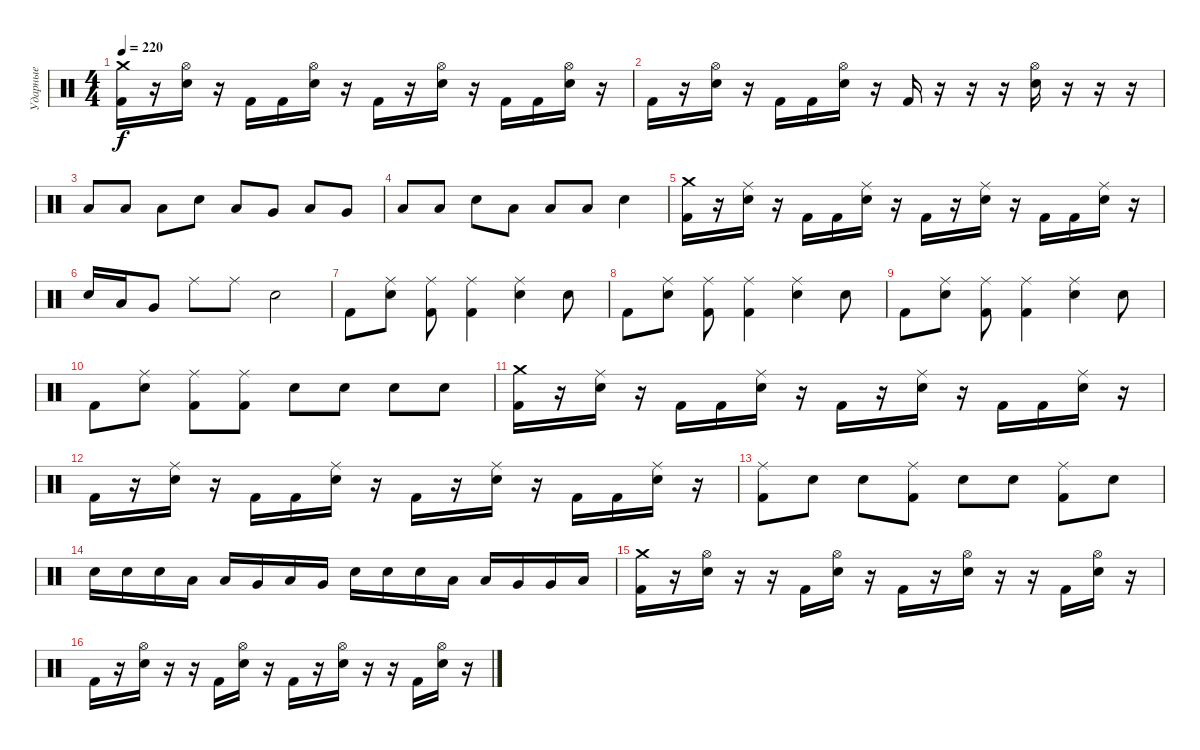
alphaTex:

\track ("Ударные" "Ударные") {instrument percussion}
\staff {score}
\articulation defaults
\ts (4 4)
\tempo 220
\clef neutral
\ks c
("Crash medium (hit)" "Kick (hit) 2").16{dy f} r.16 ("Hi-Hat (open)" "Snare (hit) 2").16 r.16 "Kick (hit) 2".16 "Kick (hit) 2".16 ("Hi-Hat (open)" "Snare (hit) 2").16 r.16 "Kick (hit) 2".16 r.16 ("Hi-Hat (open)" "Snare (hit) 2").16 r.16 "Kick (hit) 2".16 "Kick (hit) 2".16 ("Hi-Hat (open)" "Snare (hit) 2").16 r.16 |
"Kick (hit) 2".16 r.16 ("Hi-Hat (open)" "Snare (hit) 2").16 r.16 "Kick (hit) 2".16 "Kick (hit) 2".16 ("Hi-Hat (open)" "Snare (hit) 2").16 r.16 "Kick (hit) 2".16 r.16 r.16 r.16 ("Hi-Hat (open)" "Snare (hit) 2").16 r.16 r.16 r.16 |
"Low Floor Tom (hit)".8 "Low Floor Tom (hit)".8 "Low Floor Tom (hit)".8 "Snare (hit) 2".8 "Low Floor Tom (hit)".8 "Very Low Tom (hit)".8 "Low Floor Tom (hit)".8 "Very Low Tom (hit)".8 |
"Low Floor Tom (hit)".8 "Low Floor Tom (hit)".8 "Snare (hit) 2".8 "Low Floor Tom (hit)".8 "Low Floor Tom (hit)".8 "Low Floor Tom (hit)".8 "Snare (hit) 2".4 |
("Crash medium (hit)" "Kick (hit) 2").16 r.16 ("Ride (middle)" "Snare (hit) 2").16 r.16 "Kick (hit) 2".16 "Kick (hit) 2".16 ("Ride (middle)" "Snare (hit) 2").16 r.16 "Kick (hit) 2".16 r.16 ("Ride (middle)" "Snare (hit) 2").16 r.16 "Kick (hit) 2".16 "Kick (hit) 2".16 ("Ride (middle)" "Snare (hit) 2").16 r.16 |
"Snare (hit) 2".16 "Low Tom (hit)".16 "Very Low Tom (hit)".8 "Ride (middle)".8 "Ride (middle)".8 "Snare (hit) 2".2 |
"Kick (hit) 2".8 ("Ride (middle)" "Snare (hit) 2").8 ("Ride (middle)" "Kick (hit) 2").8 ("Ride (middle)" "Kick (hit) 2").4 ("Ride (middle)" "Snare (hit) 2").4 "Snare (hit) 2".8 |
"Kick (hit) 2".8 ("Ride (middle)" "Snare (hit) 2").8 ("Ride (middle)" "Kick (hit) 2").8 ("Ride (middle)" "Kick (hit) 2").4 ("Ride (middle)" "Snare (hit) 2").4 "Snare (hit) 2".8 |
"Kick (hit) 2".8 ("Ride (middle)" "Snare (hit) 2").8 ("Ride (middle)" "Kick (hit) 2").8 ("Ride (middle)" "Kick (hit) 2").4 ("Ride (middle)" "Snare (hit) 2").4 "Snare (hit) 2".8 |
"Kick (hit) 2".8 ("Ride (middle)" "Snare (hit) 2").8 ("Ride (middle)" "Kick (hit) 2").8 ("Ride (middle)" "Kick (hit) 2").8 "Snare (hit) 2".8 "Snare (hit) 2".8 "Snare (hit) 2".8 "Snare (hit) 2".8 |
("Crash medium (hit)" "Kick (hit) 2").16 r.16 ("Ride (middle)" "Snare (hit) 2").16 r.16 "Kick (hit) 2".16 "Kick (hit) 2".16 ("Ride (middle)" "Snare (hit) 2").16 r.16 "Kick (hit) 2".16 r.16 ("Ride (middle)" "Snare (hit) 2").16 r.16 "Kick (hit) 2".16 "Kick (hit) 2".16 ("Ride (middle)" "Snare (hit) 2").16 r.16 |
"Kick (hit) 2".16 r.16 ("Ride (middle)" "Snare (hit) 2").16 r.16 "Kick (hit) 2".16 "Kick (hit) 2".16 ("Ride (middle)" "Snare (hit) 2").16 r.16 "Kick (hit) 2".16 r.16 ("Ride (middle)" "Snare (hit) 2").16 r.16 "Kick (hit) 2".16 "Kick (hit) 2".16 ("Ride (middle)" "Snare (hit) 2").16 r.16 |
("Ride (middle)" "Kick (hit) 2").8 "Snare (hit) 2".8 "Snare (hit) 2".8 ("Ride (middle)" "Kick (hit) 2").8 "Snare (hit) 2".8 "Snare (hit) 2".8 ("Ride (middle)" "Kick (hit) 2").8 "Snare (hit) 2".8 |
"Snare (hit) 2".16 "Snare (hit) 2".16 "Snare (hit) 2".16 "Low Tom (hit)".16 "Low Tom (hit)".16 "Very Low Tom (hit)".16 "Low Floor Tom (hit)".16 "Very Low Tom (hit)".16 "Snare (hit) 2".16 "Snare (hit) 2".16 "Snare (hit) 2".16 "Low Tom (hit)".16 "Low Tom (hit)".16 "Very Low Tom (hit)".16 "Very Low Tom (hit)".16 "Low Floor Tom (hit)".16 |
("Crash medium (hit)" "Kick (hit) 2").16 r.16 ("Hi-Hat (open)" "Snare (hit) 2").16 r.16 r.16 "Kick (hit) 2".16 ("Hi-Hat (open)" "Snare (hit) 2").16 r.16 "Kick (hit) 2".16 r.16 ("Hi-Hat (open)" "Snare (hit) 2").16 r.16 r.16 "Kick (hit) 2".16 ("Hi-Hat (open)" "Snare (hit) 2").16 r.16 |
"Kick (hit) 2".16 r.16 ("Hi-Hat (open)" "Snare (hit) 2").16 r.16 r.16 "Kick (hit) 2".16 ("Hi-Hat (open)" "Snare (hit) 2").16 r.16 "Kick (hit) 2".16 r.16 ("Hi-Hat (open)" "Snare (hit) 2").16 r.16 r.16 "Kick (hit) 2".16 ("Hi-Hat (open)" "Snare (hit) 2").16 r.16
